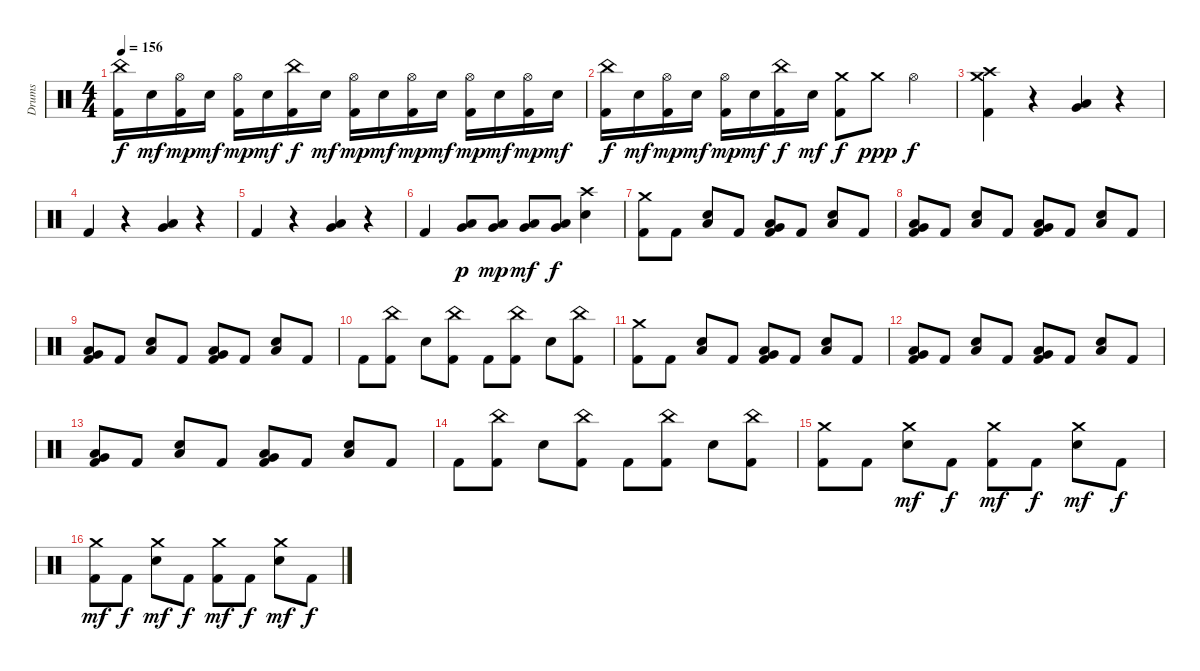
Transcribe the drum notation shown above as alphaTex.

\track ("Drums" "Drums") {instrument percussion}
\staff
\articulation defaults
\ts (4 4)
\tempo 156
\clef neutral
\ks c
("China (hit)" "Kick (hit) 2").16{dy f} "Electric Snare (hit)".16{dy mf} ("Hi-Hat (open)" "Kick (hit) 2").16{dy mp} "Electric Snare (hit)".16{dy mf} ("Hi-Hat (open)" "Kick (hit) 2").16{dy mp} "Electric Snare (hit)".16{dy mf} ("China (hit)" "Kick (hit) 2").16{dy f} "Electric Snare (hit)".16{dy mf} ("Hi-Hat (open)" "Kick (hit) 2").16{dy mp} "Electric Snare (hit)".16{dy mf} ("Hi-Hat (open)" "Kick (hit) 2").16{dy mp} "Electric Snare (hit)".16{dy mf} ("Hi-Hat (open)" "Kick (hit) 2").16{dy mp} "Electric Snare (hit)".16{dy mf} ("Hi-Hat (open)" "Kick (hit) 2").16{dy mp} "Electric Snare (hit)".16{dy mf} |
("China (hit)" "Kick (hit) 2").16{dy f} "Electric Snare (hit)".16{dy mf} ("Hi-Hat (open)" "Kick (hit) 2").16{dy mp} "Electric Snare (hit)".16{dy mf} ("Hi-Hat (open)" "Kick (hit) 2").16{dy mp} "Electric Snare (hit)".16{dy mf} ("China (hit)" "Kick (hit) 2").16{dy f} "Electric Snare (hit)".16{dy mf} ("Crash medium (hit)" "Kick (hit) 2").8{dy f} "Crash medium (hit)".8{dy ppp} "Hi-Hat (open)".4{dy f} |
("Crash medium (hit)" "Crash high (hit)" "Kick (hit) 2").4 r.4 ("Low Floor Tom (hit)" "Very Low Tom (hit)").4 r.4 |
"Kick (hit) 2".4 r.4 ("Low Floor Tom (hit)" "Very Low Tom (hit)").4 r.4 |
"Kick (hit) 2".4 r.4 ("Low Floor Tom (hit)" "Very Low Tom (hit)").4 r.4 |
"Kick (hit) 2".4 ("Very Low Tom (hit)" "Low Floor Tom (hit)").8{dy p} ("Very Low Tom (hit)" "Low Floor Tom (hit)").8{dy mp} ("Very Low Tom (hit)" "Low Floor Tom (hit)").8{dy mf} ("Very Low Tom (hit)" "Low Floor Tom (hit)").8{dy f} ("Crash high (hit)" "Electric Snare (hit)").4 |
("Crash medium (hit)" "Kick (hit) 2").8 "Kick (hit) 2".8 ("Low Floor Tom (hit)" "Electric Snare (hit)").8 "Kick (hit) 2".8 ("Low Floor Tom (hit)" "Very Low Tom (hit)" "Kick (hit) 2").8 "Kick (hit) 2".8 ("Low Floor Tom (hit)" "Electric Snare (hit)").8 "Kick (hit) 2".8 |
("Low Floor Tom (hit)" "Very Low Tom (hit)" "Kick (hit) 2").8 "Kick (hit) 2".8 ("Low Floor Tom (hit)" "Electric Snare (hit)").8 "Kick (hit) 2".8 ("Low Floor Tom (hit)" "Very Low Tom (hit)" "Kick (hit) 2").8 "Kick (hit) 2".8 ("Low Floor Tom (hit)" "Electric Snare (hit)").8 "Kick (hit) 2".8 |
("Low Floor Tom (hit)" "Very Low Tom (hit)" "Kick (hit) 2").8 "Kick (hit) 2".8 ("Low Floor Tom (hit)" "Electric Snare (hit)").8 "Kick (hit) 2".8 ("Low Floor Tom (hit)" "Very Low Tom (hit)" "Kick (hit) 2").8 "Kick (hit) 2".8 ("Low Floor Tom (hit)" "Electric Snare (hit)").8 "Kick (hit) 2".8 |
"Kick (hit) 2".8 ("China (hit)" "Kick (hit) 2").8 "Electric Snare (hit)".8 ("China (hit)" "Kick (hit) 2").8 "Kick (hit) 2".8 ("China (hit)" "Kick (hit) 2").8 "Electric Snare (hit)".8 ("China (hit)" "Kick (hit) 2").8 |
("Crash medium (hit)" "Kick (hit) 2").8 "Kick (hit) 2".8 ("Low Floor Tom (hit)" "Electric Snare (hit)").8 "Kick (hit) 2".8 ("Low Floor Tom (hit)" "Very Low Tom (hit)" "Kick (hit) 2").8 "Kick (hit) 2".8 ("Low Floor Tom (hit)" "Electric Snare (hit)").8 "Kick (hit) 2".8 |
("Low Floor Tom (hit)" "Very Low Tom (hit)" "Kick (hit) 2").8 "Kick (hit) 2".8 ("Low Floor Tom (hit)" "Electric Snare (hit)").8 "Kick (hit) 2".8 ("Low Floor Tom (hit)" "Very Low Tom (hit)" "Kick (hit) 2").8 "Kick (hit) 2".8 ("Low Floor Tom (hit)" "Electric Snare (hit)").8 "Kick (hit) 2".8 |
("Low Floor Tom (hit)" "Very Low Tom (hit)" "Kick (hit) 2").8 "Kick (hit) 2".8 ("Low Floor Tom (hit)" "Electric Snare (hit)").8 "Kick (hit) 2".8 ("Low Floor Tom (hit)" "Very Low Tom (hit)" "Kick (hit) 2").8 "Kick (hit) 2".8 ("Low Floor Tom (hit)" "Electric Snare (hit)").8 "Kick (hit) 2".8 |
"Kick (hit) 2".8 ("China (hit)" "Kick (hit) 2").8 "Electric Snare (hit)".8 ("China (hit)" "Kick (hit) 2").8 "Kick (hit) 2".8 ("China (hit)" "Kick (hit) 2").8 "Electric Snare (hit)".8 ("China (hit)" "Kick (hit) 2").8 |
("Crash medium (hit)" "Kick (hit) 2").8 "Kick (hit) 2".8 ("Crash medium (hit)" "Electric Snare (hit)").8{dy mf} "Kick (hit) 2".8{dy f} ("Crash medium (hit)" "Kick (hit) 2").8{dy mf} "Kick (hit) 2".8{dy f} ("Crash medium (hit)" "Electric Snare (hit)").8{dy mf} "Kick (hit) 2".8{dy f} |
("Crash medium (hit)" "Kick (hit) 2").8{dy mf} "Kick (hit) 2".8{dy f} ("Crash medium (hit)" "Electric Snare (hit)").8{dy mf} "Kick (hit) 2".8{dy f} ("Crash medium (hit)" "Kick (hit) 2").8{dy mf} "Kick (hit) 2".8{dy f} ("Crash medium (hit)" "Electric Snare (hit)").8{dy mf} "Kick (hit) 2".8{dy f}
